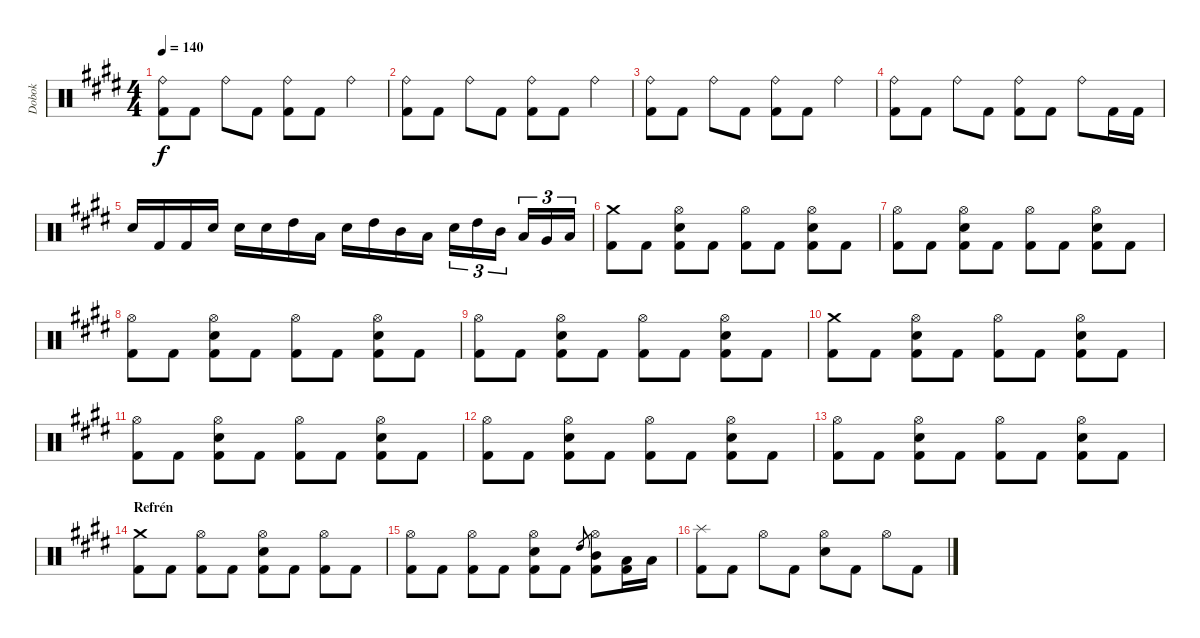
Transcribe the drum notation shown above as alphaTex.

\track ("Dobok" "Dobok") {instrument percussion}
\staff {score}
\articulation defaults
\ts (4 4)
\tempo 140
\clef neutral
\ks c#minor
("Ride (bell)" "Kick (hit) 2").8{dy f} "Kick (hit) 2".8 "Ride (bell)".8 "Kick (hit) 2".8 ("Ride (bell)" "Kick (hit) 2").8 "Kick (hit) 2".8 "Ride (bell)".4 |
("Ride (bell)" "Kick (hit) 2").8 "Kick (hit) 2".8 "Ride (bell)".8 "Kick (hit) 2".8 ("Ride (bell)" "Kick (hit) 2").8 "Kick (hit) 2".8 "Ride (bell)".4 |
("Ride (bell)" "Kick (hit) 2").8 "Kick (hit) 2".8 "Ride (bell)".8 "Kick (hit) 2".8 ("Ride (bell)" "Kick (hit) 2").8 "Kick (hit) 2".8 "Ride (bell)".4 |
("Ride (bell)" "Kick (hit) 2").8 "Kick (hit) 2".8 "Ride (bell)".8 "Kick (hit) 2".8 ("Ride (bell)" "Kick (hit) 2").8 "Kick (hit) 2".8 "Ride (bell)".8 "Kick (hit) 2".16 "Kick (hit) 2".16 |
"Snare (hit) 2".16 "Kick (hit) 2".16 "Kick (hit) 2".16 "Snare (hit) 2".16 "Snare (hit) 2".16 "Snare (hit) 2".16 "High Tom (hit)".16 "Low Tom (hit)".16 "Snare (hit) 2".16 "High Tom (hit)".16 "Mid Tom (hit)".16 "Low Tom (hit)".16 "Snare (hit) 2".16{tu (3 2)} "High Tom (hit)".16{tu (3 2)} "Mid Tom (hit)".16{tu (3 2)} "Low Tom (hit)".16{tu (3 2)} "Very Low Tom (hit)".16{tu (3 2)} "Low Floor Tom (hit)".16{tu (3 2)} |
("Crash medium (hit)" "Kick (hit) 2").8 "Kick (hit) 2".8 ("Hi-Hat (open)" "Snare (hit) 2" "Kick (hit) 2").8 "Kick (hit) 2".8 ("Hi-Hat (open)" "Kick (hit) 2").8 "Kick (hit) 2".8 ("Hi-Hat (open)" "Snare (hit) 2" "Kick (hit) 2").8 "Kick (hit) 2".8 |
("Hi-Hat (open)" "Kick (hit) 2").8 "Kick (hit) 2".8 ("Hi-Hat (open)" "Snare (hit) 2" "Kick (hit) 2").8 "Kick (hit) 2".8 ("Hi-Hat (open)" "Kick (hit) 2").8 "Kick (hit) 2".8 ("Hi-Hat (open)" "Snare (hit) 2" "Kick (hit) 2").8 "Kick (hit) 2".8 |
("Hi-Hat (open)" "Kick (hit) 2").8 "Kick (hit) 2".8 ("Hi-Hat (open)" "Snare (hit) 2" "Kick (hit) 2").8 "Kick (hit) 2".8 ("Hi-Hat (open)" "Kick (hit) 2").8 "Kick (hit) 2".8 ("Hi-Hat (open)" "Snare (hit) 2" "Kick (hit) 2").8 "Kick (hit) 2".8 |
("Hi-Hat (open)" "Kick (hit) 2").8 "Kick (hit) 2".8 ("Hi-Hat (open)" "Snare (hit) 2" "Kick (hit) 2").8 "Kick (hit) 2".8 ("Hi-Hat (open)" "Kick (hit) 2").8 "Kick (hit) 2".8 ("Hi-Hat (open)" "Snare (hit) 2" "Kick (hit) 2").8 "Kick (hit) 2".8 |
("Crash medium (hit)" "Kick (hit) 2").8 "Kick (hit) 2".8 ("Hi-Hat (open)" "Snare (hit) 2" "Kick (hit) 2").8 "Kick (hit) 2".8 ("Hi-Hat (open)" "Kick (hit) 2").8 "Kick (hit) 2".8 ("Hi-Hat (open)" "Snare (hit) 2" "Kick (hit) 2").8 "Kick (hit) 2".8 |
("Hi-Hat (open)" "Kick (hit) 2").8 "Kick (hit) 2".8 ("Hi-Hat (open)" "Snare (hit) 2" "Kick (hit) 2").8 "Kick (hit) 2".8 ("Hi-Hat (open)" "Kick (hit) 2").8 "Kick (hit) 2".8 ("Hi-Hat (open)" "Snare (hit) 2" "Kick (hit) 2").8 "Kick (hit) 2".8 |
("Hi-Hat (open)" "Kick (hit) 2").8 "Kick (hit) 2".8 ("Hi-Hat (open)" "Snare (hit) 2" "Kick (hit) 2").8 "Kick (hit) 2".8 ("Hi-Hat (open)" "Kick (hit) 2").8 "Kick (hit) 2".8 ("Hi-Hat (open)" "Snare (hit) 2" "Kick (hit) 2").8 "Kick (hit) 2".8 |
("Hi-Hat (open)" "Kick (hit) 2").8 "Kick (hit) 2".8 ("Hi-Hat (open)" "Snare (hit) 2" "Kick (hit) 2").8 "Kick (hit) 2".8 ("Hi-Hat (open)" "Kick (hit) 2").8 "Kick (hit) 2".8 ("Hi-Hat (open)" "Snare (hit) 2" "Kick (hit) 2").8 "Kick (hit) 2".8 |
\section ("" "Refrén")
("Crash medium (hit)" "Kick (hit) 2").8 "Kick (hit) 2".8 ("Hi-Hat (open)" "Kick (hit) 2").8 "Kick (hit) 2".8 ("Hi-Hat (open)" "Snare (hit) 2" "Kick (hit) 2").8 "Kick (hit) 2".8 ("Hi-Hat (open)" "Kick (hit) 2").8 "Kick (hit) 2".8 |
("Hi-Hat (open)" "Kick (hit) 2").8 "Kick (hit) 2".8 ("Hi-Hat (open)" "Kick (hit) 2").8 "Kick (hit) 2".8 ("Hi-Hat (open)" "Snare (hit) 2" "Kick (hit) 2").8 "Kick (hit) 2".8 "High Tom (hit)".8{gr} ("Hi-Hat (open)" "Mid Tom (hit)" "Kick (hit) 2").8 ("Low Tom (hit)" "Kick (hit) 2").16 "Low Tom (hit)".16 |
("Splash (hit)" "Kick (hit) 2").8 "Kick (hit) 2".8 "Hi-Hat (open)".8 "Kick (hit) 2".8 ("Hi-Hat (open)" "Snare (hit) 2").8 "Kick (hit) 2".8 "Hi-Hat (open)".8 "Kick (hit) 2".8
